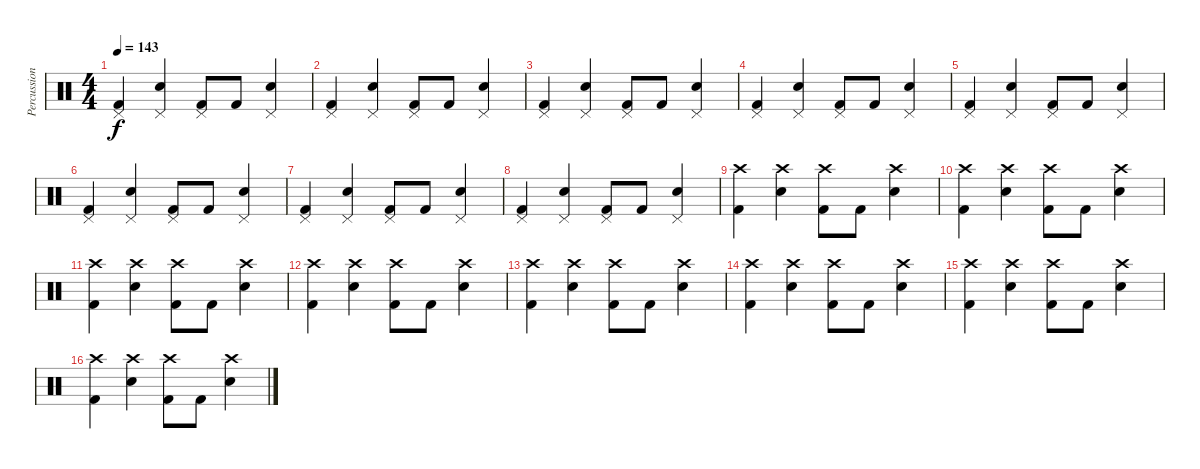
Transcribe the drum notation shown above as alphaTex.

\track ("Percussion" "Percussion") {instrument percussion}
\staff {score}
\articulation defaults
\ts (4 4)
\tempo 143
\clef neutral
\ks c
("Pedal Hi-Hat (hit)" "Kick (hit) 2").4{dy f} ("Pedal Hi-Hat (hit)" "Electric Snare (hit)").4 ("Pedal Hi-Hat (hit)" "Kick (hit) 2").8 "Kick (hit) 2".8 ("Pedal Hi-Hat (hit)" "Electric Snare (hit)").4 |
("Pedal Hi-Hat (hit)" "Kick (hit) 2").4 ("Pedal Hi-Hat (hit)" "Electric Snare (hit)").4 ("Pedal Hi-Hat (hit)" "Kick (hit) 2").8 "Kick (hit) 2".8 ("Pedal Hi-Hat (hit)" "Electric Snare (hit)").4 |
("Pedal Hi-Hat (hit)" "Kick (hit) 2").4 ("Pedal Hi-Hat (hit)" "Electric Snare (hit)").4 ("Pedal Hi-Hat (hit)" "Kick (hit) 2").8 "Kick (hit) 2".8 ("Pedal Hi-Hat (hit)" "Electric Snare (hit)").4 |
("Pedal Hi-Hat (hit)" "Kick (hit) 2").4 ("Pedal Hi-Hat (hit)" "Electric Snare (hit)").4 ("Pedal Hi-Hat (hit)" "Kick (hit) 2").8 "Kick (hit) 2".8 ("Pedal Hi-Hat (hit)" "Electric Snare (hit)").4 |
("Pedal Hi-Hat (hit)" "Kick (hit) 2").4 ("Pedal Hi-Hat (hit)" "Electric Snare (hit)").4 ("Pedal Hi-Hat (hit)" "Kick (hit) 2").8 "Kick (hit) 2".8 ("Pedal Hi-Hat (hit)" "Electric Snare (hit)").4 |
("Pedal Hi-Hat (hit)" "Kick (hit) 2").4 ("Pedal Hi-Hat (hit)" "Electric Snare (hit)").4 ("Pedal Hi-Hat (hit)" "Kick (hit) 2").8 "Kick (hit) 2".8 ("Pedal Hi-Hat (hit)" "Electric Snare (hit)").4 |
("Pedal Hi-Hat (hit)" "Kick (hit) 2").4 ("Pedal Hi-Hat (hit)" "Electric Snare (hit)").4 ("Pedal Hi-Hat (hit)" "Kick (hit) 2").8 "Kick (hit) 2".8 ("Pedal Hi-Hat (hit)" "Electric Snare (hit)").4 |
("Pedal Hi-Hat (hit)" "Kick (hit) 2").4 ("Pedal Hi-Hat (hit)" "Electric Snare (hit)").4 ("Pedal Hi-Hat (hit)" "Kick (hit) 2").8 "Kick (hit) 2".8 ("Pedal Hi-Hat (hit)" "Electric Snare (hit)").4 |
("Crash high (hit)" "Kick (hit) 2").4 ("Crash high (hit)" "Electric Snare (hit)").4 ("Crash high (hit)" "Kick (hit) 2").8 "Kick (hit) 2".8 ("Crash high (hit)" "Electric Snare (hit)").4 |
("Crash high (hit)" "Kick (hit) 2").4 ("Crash high (hit)" "Electric Snare (hit)").4 ("Crash high (hit)" "Kick (hit) 2").8 "Kick (hit) 2".8 ("Crash high (hit)" "Electric Snare (hit)").4 |
("Crash high (hit)" "Kick (hit) 2").4 ("Crash high (hit)" "Electric Snare (hit)").4 ("Crash high (hit)" "Kick (hit) 2").8 "Kick (hit) 2".8 ("Crash high (hit)" "Electric Snare (hit)").4 |
("Crash high (hit)" "Kick (hit) 2").4 ("Crash high (hit)" "Electric Snare (hit)").4 ("Crash high (hit)" "Kick (hit) 2").8 "Kick (hit) 2".8 ("Crash high (hit)" "Electric Snare (hit)").4 |
("Crash high (hit)" "Kick (hit) 2").4 ("Crash high (hit)" "Electric Snare (hit)").4 ("Crash high (hit)" "Kick (hit) 2").8 "Kick (hit) 2".8 ("Crash high (hit)" "Electric Snare (hit)").4 |
("Crash high (hit)" "Kick (hit) 2").4 ("Crash high (hit)" "Electric Snare (hit)").4 ("Crash high (hit)" "Kick (hit) 2").8 "Kick (hit) 2".8 ("Crash high (hit)" "Electric Snare (hit)").4 |
("Crash high (hit)" "Kick (hit) 2").4 ("Crash high (hit)" "Electric Snare (hit)").4 ("Crash high (hit)" "Kick (hit) 2").8 "Kick (hit) 2".8 ("Crash high (hit)" "Electric Snare (hit)").4 |
("Crash high (hit)" "Kick (hit) 2").4 ("Crash high (hit)" "Electric Snare (hit)").4 ("Crash high (hit)" "Kick (hit) 2").8 "Kick (hit) 2".8 ("Crash high (hit)" "Electric Snare (hit)").4
